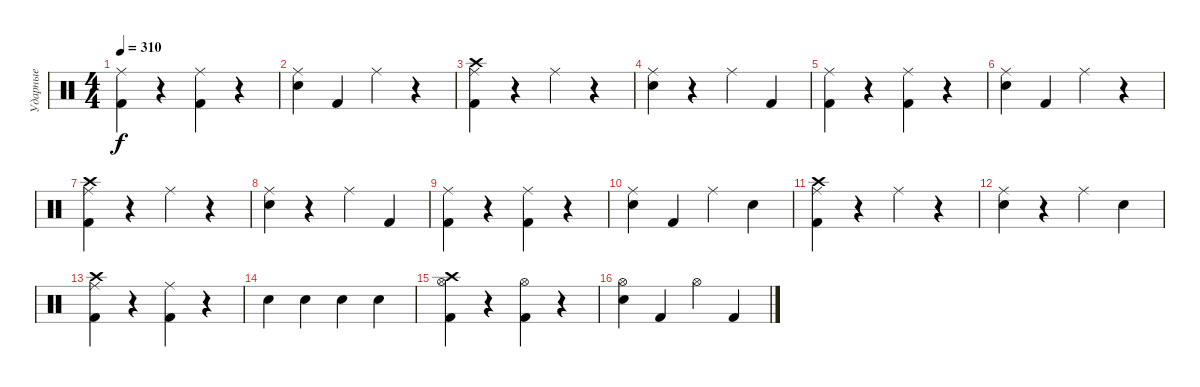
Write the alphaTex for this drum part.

\track ("Ударные" "Ударные") {instrument percussion}
\staff {score}
\articulation defaults
\ts (4 4)
\tempo 310
\clef neutral
\ks c
("Ride (middle)" "Kick (hit) 2").4{dy f} r.4 ("Ride (middle)" "Kick (hit) 2").4 r.4 |
("Ride (middle)" "Electric Snare (hit)").4 "Kick (hit) 2".4 "Ride (middle)".4 r.4 |
("Crash high (hit)" "Ride (middle)" "Kick (hit) 2").4 r.4 "Ride (middle)".4 r.4 |
("Ride (middle)" "Electric Snare (hit)").4 r.4 "Ride (middle)".4 "Kick (hit) 2".4 |
("Ride (middle)" "Kick (hit) 2").4 r.4 ("Ride (middle)" "Kick (hit) 2").4 r.4 |
("Ride (middle)" "Electric Snare (hit)").4 "Kick (hit) 2".4 "Ride (middle)".4 r.4 |
("Crash high (hit)" "Ride (middle)" "Kick (hit) 2").4 r.4 "Ride (middle)".4 r.4 |
("Ride (middle)" "Electric Snare (hit)").4 r.4 "Ride (middle)".4 "Kick (hit) 2".4 |
("Ride (middle)" "Kick (hit) 2").4 r.4 ("Ride (middle)" "Kick (hit) 2").4 r.4 |
("Ride (middle)" "Electric Snare (hit)").4 "Kick (hit) 2".4 "Ride (middle)".4 "Electric Snare (hit)".4 |
("Crash high (hit)" "Ride (middle)" "Kick (hit) 2").4 r.4 "Ride (middle)".4 r.4 |
("Ride (middle)" "Electric Snare (hit)").4 r.4 "Ride (middle)".4 "Electric Snare (hit)".4 |
("Crash high (hit)" "Ride (middle)" "Kick (hit) 2").4 r.4 ("Ride (middle)" "Kick (hit) 2").4 r.4 |
"Electric Snare (hit)".4 "Electric Snare (hit)".4 "Electric Snare (hit)".4 "Electric Snare (hit)".4 |
("Crash high (hit)" "Hi-Hat (open)" "Kick (hit) 2").4 r.4 ("Hi-Hat (open)" "Kick (hit) 2").4 r.4 |
("Hi-Hat (open)" "Electric Snare (hit)").4 "Kick (hit) 2".4 "Hi-Hat (open)".4 "Kick (hit) 2".4
